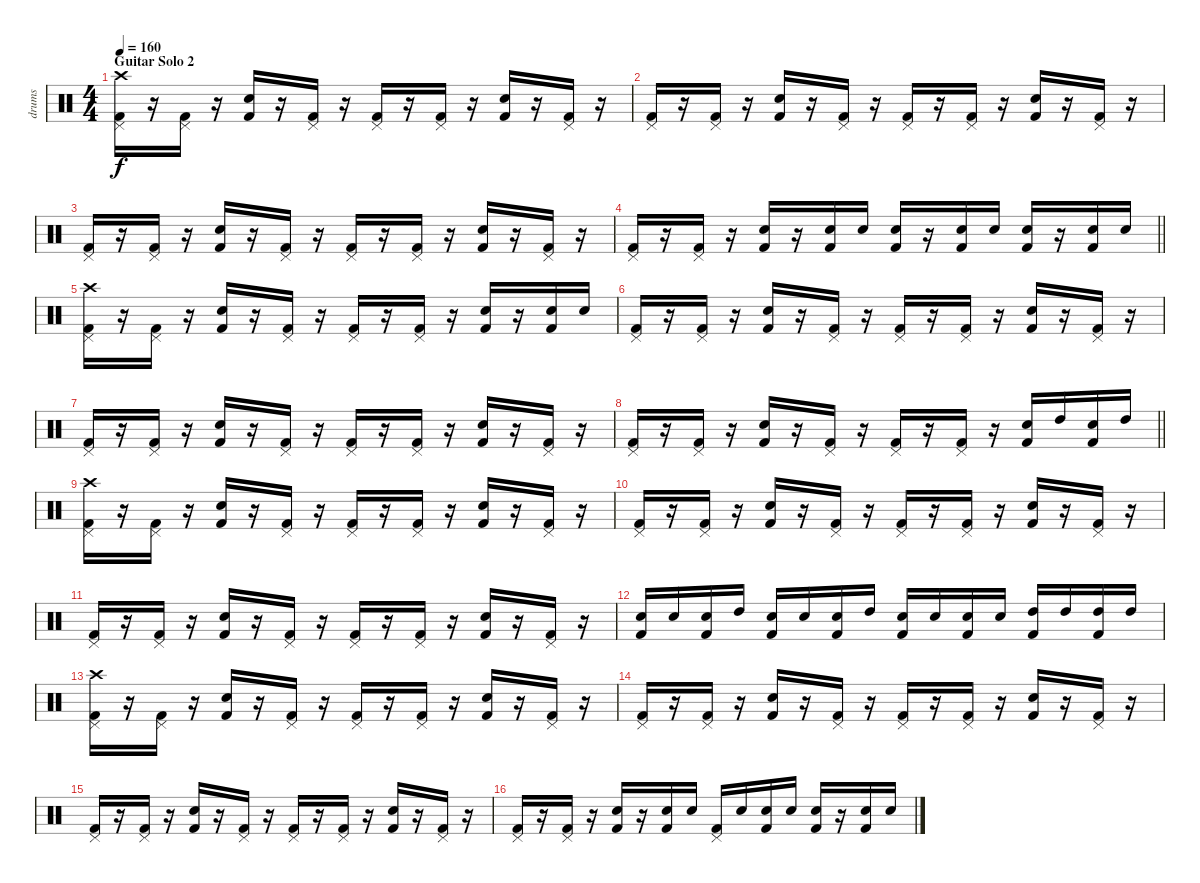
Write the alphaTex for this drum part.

\track ("drums" "drums") {instrument percussion}
\staff {score}
\articulation defaults
\ts (4 4)
\section ("" "Guitar Solo 2")
\tempo 160
\clef neutral
\ks c
("Crash high (hit)" "Pedal Hi-Hat (hit)" "Kick (hit) 2").16{dy f} r.16 ("Pedal Hi-Hat (hit)" "Kick (hit) 2").16 r.16 ("Snare (hit) 2" "Kick (hit) 2").16 r.16 ("Pedal Hi-Hat (hit)" "Kick (hit) 2").16 r.16 ("Pedal Hi-Hat (hit)" "Kick (hit) 2").16 r.16 ("Pedal Hi-Hat (hit)" "Kick (hit) 2").16 r.16 ("Snare (hit) 2" "Kick (hit) 2").16 r.16 ("Pedal Hi-Hat (hit)" "Kick (hit) 2").16 r.16 |
("Pedal Hi-Hat (hit)" "Kick (hit) 2").16 r.16 ("Pedal Hi-Hat (hit)" "Kick (hit) 2").16 r.16 ("Snare (hit) 2" "Kick (hit) 2").16 r.16 ("Pedal Hi-Hat (hit)" "Kick (hit) 2").16 r.16 ("Pedal Hi-Hat (hit)" "Kick (hit) 2").16 r.16 ("Pedal Hi-Hat (hit)" "Kick (hit) 2").16 r.16 ("Snare (hit) 2" "Kick (hit) 2").16 r.16 ("Pedal Hi-Hat (hit)" "Kick (hit) 2").16 r.16 |
("Pedal Hi-Hat (hit)" "Kick (hit) 2").16 r.16 ("Pedal Hi-Hat (hit)" "Kick (hit) 2").16 r.16 ("Snare (hit) 2" "Kick (hit) 2").16 r.16 ("Pedal Hi-Hat (hit)" "Kick (hit) 2").16 r.16 ("Pedal Hi-Hat (hit)" "Kick (hit) 2").16 r.16 ("Pedal Hi-Hat (hit)" "Kick (hit) 2").16 r.16 ("Snare (hit) 2" "Kick (hit) 2").16 r.16 ("Pedal Hi-Hat (hit)" "Kick (hit) 2").16 r.16 |
\barLineRight lightlight
("Pedal Hi-Hat (hit)" "Kick (hit) 2").16 r.16 ("Pedal Hi-Hat (hit)" "Kick (hit) 2").16 r.16 ("Snare (hit) 2" "Kick (hit) 2").16 r.16 ("Electric Snare (hit)" "Kick (hit) 2").16 "Electric Snare (hit)".16 ("Snare (hit) 2" "Kick (hit) 2").16 r.16 ("Electric Snare (hit)" "Kick (hit) 2").16 "Electric Snare (hit)".16 ("Snare (hit) 2" "Kick (hit) 2").16 r.16 ("Electric Snare (hit)" "Kick (hit) 2").16 "Electric Snare (hit)".16 |
("Crash high (hit)" "Pedal Hi-Hat (hit)" "Kick (hit) 2").16 r.16 ("Pedal Hi-Hat (hit)" "Kick (hit) 2").16 r.16 ("Snare (hit) 2" "Kick (hit) 2").16 r.16 ("Pedal Hi-Hat (hit)" "Kick (hit) 2").16 r.16 ("Pedal Hi-Hat (hit)" "Kick (hit) 2").16 r.16 ("Pedal Hi-Hat (hit)" "Kick (hit) 2").16 r.16 ("Snare (hit) 2" "Kick (hit) 2").16 r.16 ("Electric Snare (hit)" "Kick (hit) 2").16 "Electric Snare (hit)".16 |
("Pedal Hi-Hat (hit)" "Kick (hit) 2").16 r.16 ("Pedal Hi-Hat (hit)" "Kick (hit) 2").16 r.16 ("Snare (hit) 2" "Kick (hit) 2").16 r.16 ("Pedal Hi-Hat (hit)" "Kick (hit) 2").16 r.16 ("Pedal Hi-Hat (hit)" "Kick (hit) 2").16 r.16 ("Pedal Hi-Hat (hit)" "Kick (hit) 2").16 r.16 ("Snare (hit) 2" "Kick (hit) 2").16 r.16 ("Pedal Hi-Hat (hit)" "Kick (hit) 2").16 r.16 |
("Pedal Hi-Hat (hit)" "Kick (hit) 2").16 r.16 ("Pedal Hi-Hat (hit)" "Kick (hit) 2").16 r.16 ("Snare (hit) 2" "Kick (hit) 2").16 r.16 ("Pedal Hi-Hat (hit)" "Kick (hit) 2").16 r.16 ("Pedal Hi-Hat (hit)" "Kick (hit) 2").16 r.16 ("Pedal Hi-Hat (hit)" "Kick (hit) 2").16 r.16 ("Snare (hit) 2" "Kick (hit) 2").16 r.16 ("Pedal Hi-Hat (hit)" "Kick (hit) 2").16 r.16 |
\barLineRight lightlight
("Pedal Hi-Hat (hit)" "Kick (hit) 2").16 r.16 ("Pedal Hi-Hat (hit)" "Kick (hit) 2").16 r.16 ("Snare (hit) 2" "Kick (hit) 2").16 r.16 ("Pedal Hi-Hat (hit)" "Kick (hit) 2").16 r.16 ("Pedal Hi-Hat (hit)" "Kick (hit) 2").16 r.16 ("Pedal Hi-Hat (hit)" "Kick (hit) 2").16 r.16 ("Electric Snare (hit)" "Kick (hit) 2").16 "High Tom (hit)".16 ("Electric Snare (hit)" "Kick (hit) 2").16 "High Tom (hit)".16 |
("Crash high (hit)" "Pedal Hi-Hat (hit)" "Kick (hit) 2").16 r.16 ("Pedal Hi-Hat (hit)" "Kick (hit) 2").16 r.16 ("Snare (hit) 2" "Kick (hit) 2").16 r.16 ("Pedal Hi-Hat (hit)" "Kick (hit) 2").16 r.16 ("Pedal Hi-Hat (hit)" "Kick (hit) 2").16 r.16 ("Pedal Hi-Hat (hit)" "Kick (hit) 2").16 r.16 ("Snare (hit) 2" "Kick (hit) 2").16 r.16 ("Pedal Hi-Hat (hit)" "Kick (hit) 2").16 r.16 |
("Pedal Hi-Hat (hit)" "Kick (hit) 2").16 r.16 ("Pedal Hi-Hat (hit)" "Kick (hit) 2").16 r.16 ("Snare (hit) 2" "Kick (hit) 2").16 r.16 ("Pedal Hi-Hat (hit)" "Kick (hit) 2").16 r.16 ("Pedal Hi-Hat (hit)" "Kick (hit) 2").16 r.16 ("Pedal Hi-Hat (hit)" "Kick (hit) 2").16 r.16 ("Snare (hit) 2" "Kick (hit) 2").16 r.16 ("Pedal Hi-Hat (hit)" "Kick (hit) 2").16 r.16 |
("Pedal Hi-Hat (hit)" "Kick (hit) 2").16 r.16 ("Pedal Hi-Hat (hit)" "Kick (hit) 2").16 r.16 ("Snare (hit) 2" "Kick (hit) 2").16 r.16 ("Pedal Hi-Hat (hit)" "Kick (hit) 2").16 r.16 ("Pedal Hi-Hat (hit)" "Kick (hit) 2").16 r.16 ("Pedal Hi-Hat (hit)" "Kick (hit) 2").16 r.16 ("Snare (hit) 2" "Kick (hit) 2").16 r.16 ("Pedal Hi-Hat (hit)" "Kick (hit) 2").16 r.16 |
("Electric Snare (hit)" "Kick (hit) 2").16 "Electric Snare (hit)".16 ("Snare (hit) 2" "Kick (hit) 2").16 "High Tom (hit)".16 ("Electric Snare (hit)" "Kick (hit) 2").16 "Electric Snare (hit)".16 ("Snare (hit) 2" "Kick (hit) 2").16 "High Tom (hit)".16 ("Electric Snare (hit)" "Kick (hit) 2").16 "Electric Snare (hit)".16 ("Electric Snare (hit)" "Kick (hit) 2").16 "Electric Snare (hit)".16 ("High Tom (hit)" "Kick (hit) 2").16 "High Tom (hit)".16 ("High Tom (hit)" "Kick (hit) 2").16 "High Tom (hit)".16 |
("Crash high (hit)" "Pedal Hi-Hat (hit)" "Kick (hit) 2").16 r.16 ("Pedal Hi-Hat (hit)" "Kick (hit) 2").16 r.16 ("Snare (hit) 2" "Kick (hit) 2").16 r.16 ("Pedal Hi-Hat (hit)" "Kick (hit) 2").16 r.16 ("Pedal Hi-Hat (hit)" "Kick (hit) 2").16 r.16 ("Pedal Hi-Hat (hit)" "Kick (hit) 2").16 r.16 ("Snare (hit) 2" "Kick (hit) 2").16 r.16 ("Pedal Hi-Hat (hit)" "Kick (hit) 2").16 r.16 |
("Pedal Hi-Hat (hit)" "Kick (hit) 2").16 r.16 ("Pedal Hi-Hat (hit)" "Kick (hit) 2").16 r.16 ("Snare (hit) 2" "Kick (hit) 2").16 r.16 ("Pedal Hi-Hat (hit)" "Kick (hit) 2").16 r.16 ("Pedal Hi-Hat (hit)" "Kick (hit) 2").16 r.16 ("Pedal Hi-Hat (hit)" "Kick (hit) 2").16 r.16 ("Snare (hit) 2" "Kick (hit) 2").16 r.16 ("Pedal Hi-Hat (hit)" "Kick (hit) 2").16 r.16 |
("Pedal Hi-Hat (hit)" "Kick (hit) 2").16 r.16 ("Pedal Hi-Hat (hit)" "Kick (hit) 2").16 r.16 ("Snare (hit) 2" "Kick (hit) 2").16 r.16 ("Pedal Hi-Hat (hit)" "Kick (hit) 2").16 r.16 ("Pedal Hi-Hat (hit)" "Kick (hit) 2").16 r.16 ("Pedal Hi-Hat (hit)" "Kick (hit) 2").16 r.16 ("Snare (hit) 2" "Kick (hit) 2").16 r.16 ("Pedal Hi-Hat (hit)" "Kick (hit) 2").16 r.16 |
("Pedal Hi-Hat (hit)" "Kick (hit) 2").16 r.16 ("Pedal Hi-Hat (hit)" "Kick (hit) 2").16 r.16 ("Snare (hit) 2" "Kick (hit) 2").16 r.16 ("Electric Snare (hit)" "Kick (hit) 2").16 "Electric Snare (hit)".16 ("Pedal Hi-Hat (hit)" "Kick (hit) 2").16 "Electric Snare (hit)".16 ("Electric Snare (hit)" "Kick (hit) 2").16 "Electric Snare (hit)".16 ("Snare (hit) 2" "Kick (hit) 2").16 r.16 ("Electric Snare (hit)" "Kick (hit) 2").16 "Electric Snare (hit)".16
